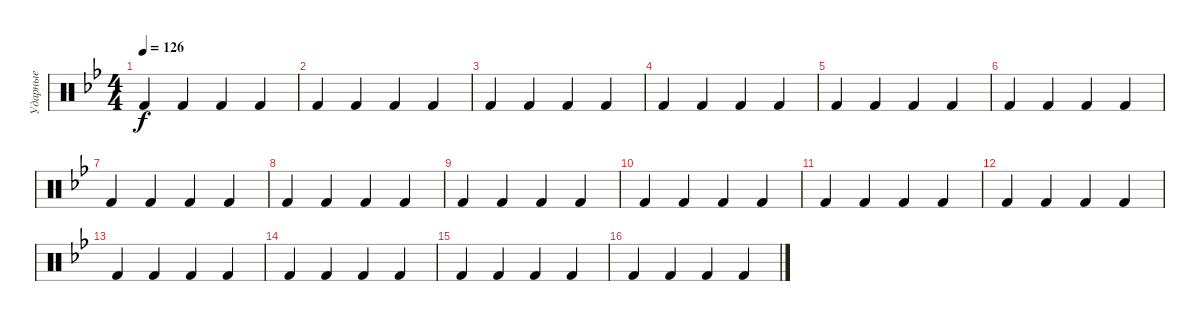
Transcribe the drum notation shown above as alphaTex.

\track ("Ударные" "Ударные") {instrument percussion}
\staff {score}
\articulation defaults
\ts (4 4)
\tempo 126
\clef neutral
\ks bb "Kick (hit) 2".4{dy f} "Kick (hit) 2".4 "Kick (hit) 2".4 "Kick (hit) 2".4
|
"Kick (hit) 2".4 "Kick (hit) 2".4 "Kick (hit) 2".4 "Kick (hit) 2".4 |
"Kick (hit) 2".4 "Kick (hit) 2".4 "Kick (hit) 2".4 "Kick (hit) 2".4 |
"Kick (hit) 2".4 "Kick (hit) 2".4 "Kick (hit) 2".4 "Kick (hit) 2".4 |
"Kick (hit) 2".4 "Kick (hit) 2".4 "Kick (hit) 2".4 "Kick (hit) 2".4 |
"Kick (hit) 2".4 "Kick (hit) 2".4 "Kick (hit) 2".4 "Kick (hit) 2".4 |
"Kick (hit) 2".4 "Kick (hit) 2".4 "Kick (hit) 2".4 "Kick (hit) 2".4 |
"Kick (hit) 2".4 "Kick (hit) 2".4 "Kick (hit) 2".4 "Kick (hit) 2".4 |
"Kick (hit) 2".4 "Kick (hit) 2".4 "Kick (hit) 2".4 "Kick (hit) 2".4 |
"Kick (hit) 2".4 "Kick (hit) 2".4 "Kick (hit) 2".4 "Kick (hit) 2".4 |
"Kick (hit) 2".4 "Kick (hit) 2".4 "Kick (hit) 2".4 "Kick (hit) 2".4 |
"Kick (hit) 2".4 "Kick (hit) 2".4 "Kick (hit) 2".4 "Kick (hit) 2".4 |
"Kick (hit) 2".4 "Kick (hit) 2".4 "Kick (hit) 2".4 "Kick (hit) 2".4 |
"Kick (hit) 2".4 "Kick (hit) 2".4 "Kick (hit) 2".4 "Kick (hit) 2".4 |
"Kick (hit) 2".4 "Kick (hit) 2".4 "Kick (hit) 2".4 "Kick (hit) 2".4 |
"Kick (hit) 2".4 "Kick (hit) 2".4 "Kick (hit) 2".4 "Kick (hit) 2".4
